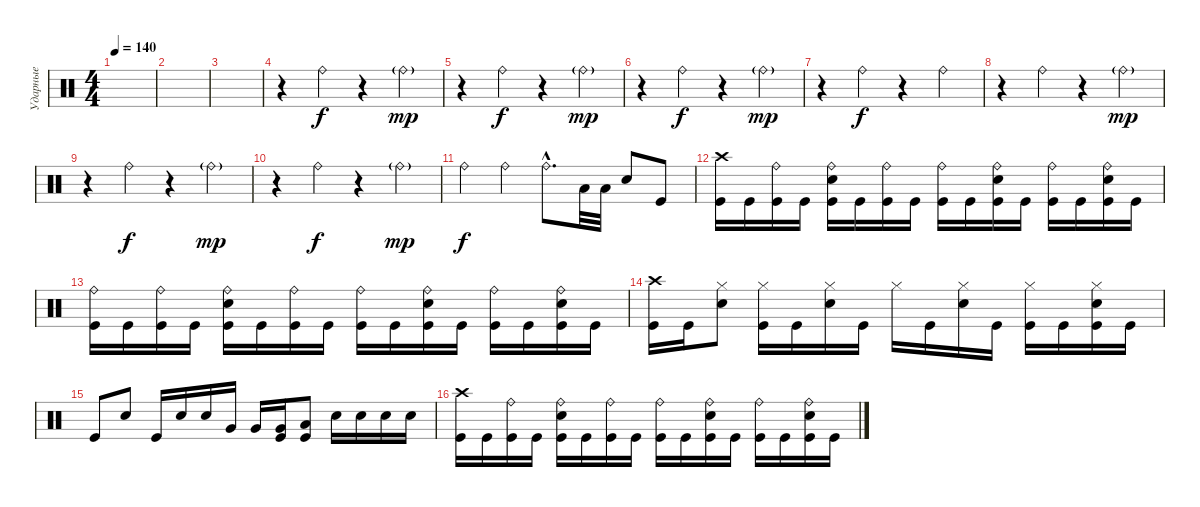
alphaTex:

\track ("Ударные" "Ударные") {instrument percussion}
\staff {score}
\articulation defaults
\ts (4 4)
\tempo 140
\clef neutral
\ks c
|
|
|
r.4 "Ride (bell)".4 r.4 "Ride (bell)"{g}.4{dy mp} |
r.4 "Ride (bell)".4{dy f} r.4 "Ride (bell)"{g}.4{dy mp} |
r.4 "Ride (bell)".4{dy f} r.4 "Ride (bell)"{g}.4{dy mp} |
r.4 "Ride (bell)".4{dy f} r.4 "Ride (bell)".4 |
r.4 "Ride (bell)".4 r.4 "Ride (bell)"{g}.4{dy mp} |
r.4 "Ride (bell)".4{dy f} r.4 "Ride (bell)"{g}.4{dy mp} |
r.4 "Ride (bell)".4{dy f} r.4 "Ride (bell)"{g}.4{dy mp} |
"Ride (bell)".4{dy f} "Ride (bell)".4 "Ride (bell)"{hac}.8{d} "Low Tom (hit)".32 "Low Tom (hit)".32 "Electric Snare (hit)".8 "Kick (hit)".8 |
("Crash high (hit)" "Kick (hit)").16 "Kick (hit)".16 ("Ride (bell)" "Kick (hit)").16 "Kick (hit)".16 ("Ride (bell)" "Electric Snare (hit)" "Kick (hit)").16 "Kick (hit)".16 ("Ride (bell)" "Kick (hit)").16 "Kick (hit)".16 ("Ride (bell)" "Kick (hit)").16 "Kick (hit)".16 ("Ride (bell)" "Electric Snare (hit)" "Kick (hit)").16 "Kick (hit)".16 ("Ride (bell)" "Kick (hit)").16 "Kick (hit)".16 ("Ride (bell)" "Electric Snare (hit)" "Kick (hit)").16 "Kick (hit)".16 |
("Ride (bell)" "Kick (hit)").16 "Kick (hit)".16 ("Ride (bell)" "Kick (hit)").16 "Kick (hit)".16 ("Ride (bell)" "Electric Snare (hit)" "Kick (hit)").16 "Kick (hit)".16 ("Ride (bell)" "Kick (hit)").16 "Kick (hit)".16 ("Ride (bell)" "Kick (hit)").16 "Kick (hit)".16 ("Ride (bell)" "Electric Snare (hit)" "Kick (hit)").16 "Kick (hit)".16 ("Ride (bell)" "Kick (hit)").16 "Kick (hit)".16 ("Ride (bell)" "Electric Snare (hit)" "Kick (hit)").16 "Kick (hit)".16 |
("Crash high (hit)" "Kick (hit)").16 "Kick (hit)".16 ("Hi-Hat (closed)" "Electric Snare (hit)").8 ("Hi-Hat (closed)" "Kick (hit)").16 "Kick (hit)".16 ("Hi-Hat (closed)" "Electric Snare (hit)").16 "Kick (hit)".16 "Hi-Hat (closed)".16 "Kick (hit)".16 ("Hi-Hat (closed)" "Electric Snare (hit)").16 "Kick (hit)".16 ("Hi-Hat (closed)" "Kick (hit)").16 "Kick (hit)".16 ("Hi-Hat (closed)" "Electric Snare (hit)" "Kick (hit)").16 "Kick (hit)".16 |
"Kick (hit)".8 "Electric Snare (hit)".8 "Kick (hit)".16 "Electric Snare (hit)".16 "Electric Snare (hit)".16 "Very Low Tom (hit)".16 "Very Low Tom (hit)".16 ("Very Low Tom (hit)" "Kick (hit)").16 ("Low Tom (hit)" "Kick (hit)").8 "Electric Snare (hit)".16 "Electric Snare (hit)".16 "Electric Snare (hit)".16 "Electric Snare (hit)".16 |
("Crash high (hit)" "Kick (hit)").16 "Kick (hit)".16 ("Ride (bell)" "Kick (hit)").16 "Kick (hit)".16 ("Ride (bell)" "Electric Snare (hit)" "Kick (hit)").16 "Kick (hit)".16 ("Ride (bell)" "Kick (hit)").16 "Kick (hit)".16 ("Ride (bell)" "Kick (hit)").16 "Kick (hit)".16 ("Ride (bell)" "Electric Snare (hit)" "Kick (hit)").16 "Kick (hit)".16 ("Ride (bell)" "Kick (hit)").16 "Kick (hit)".16 ("Ride (bell)" "Electric Snare (hit)" "Kick (hit)").16 "Kick (hit)".16
